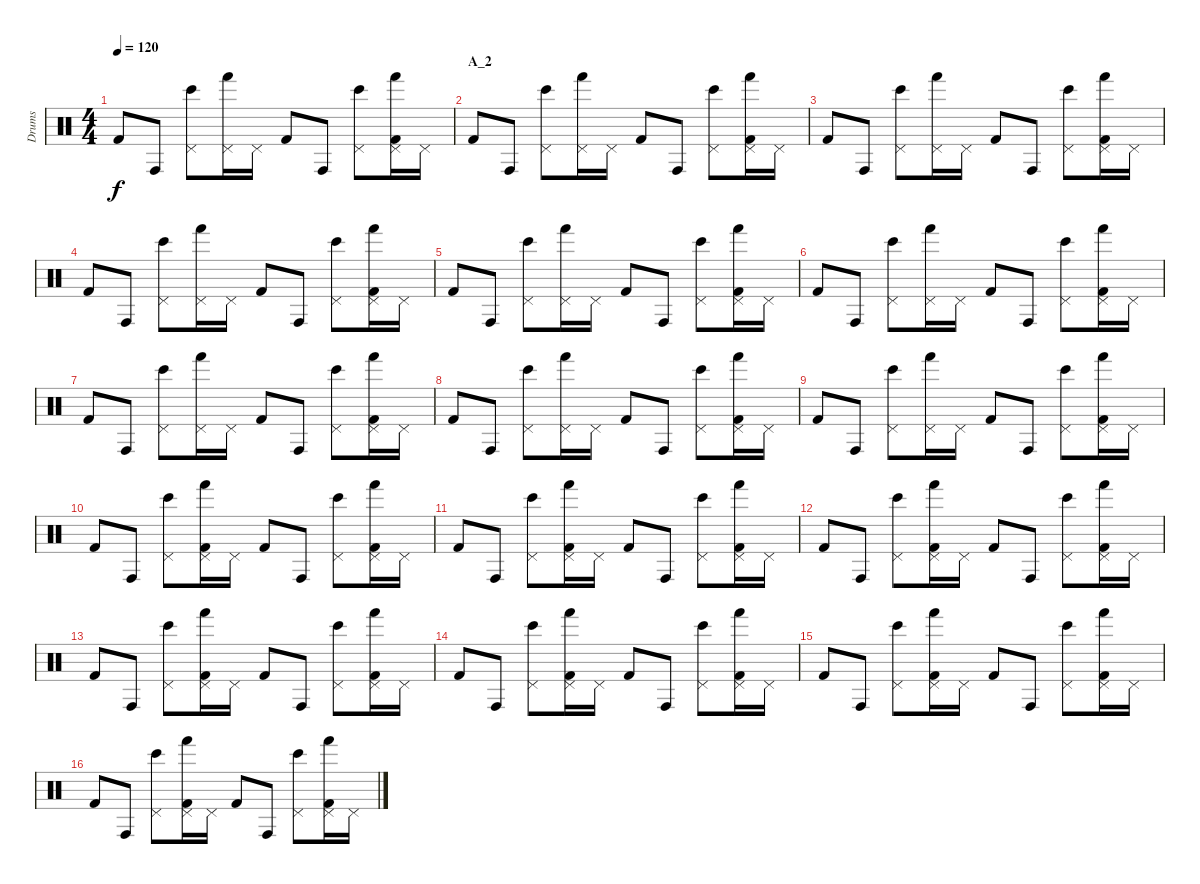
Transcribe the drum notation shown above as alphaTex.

\track ("Drums" "Drums") {instrument percussion}
\staff {score}
\articulation defaults
\ts (4 4)
\tempo 120
\clef neutral
\ks c "Kick (hit) 2".8{dy f} "Conga high (hit)".8
("Pedal Hi-Hat (hit)" "Bongo High (hit)").8 ("Pedal Hi-Hat (hit)" "Hand (hit)").16 "Pedal Hi-Hat (hit)".16 "Kick (hit) 2".8 "Conga high (hit)".8 ("Pedal Hi-Hat (hit)" "Bongo High (hit)").8 ("Pedal Hi-Hat (hit)" "Hand (hit)" "Kick (hit) 2").16 "Pedal Hi-Hat (hit)".16 |
\section ("" "A_2")
"Kick (hit) 2".8 "Conga high (hit)".8 ("Pedal Hi-Hat (hit)" "Bongo High (hit)").8 ("Pedal Hi-Hat (hit)" "Hand (hit)").16 "Pedal Hi-Hat (hit)".16 "Kick (hit) 2".8 "Conga high (hit)".8 ("Pedal Hi-Hat (hit)" "Bongo High (hit)").8 ("Pedal Hi-Hat (hit)" "Hand (hit)" "Kick (hit) 2").16 "Pedal Hi-Hat (hit)".16 |
"Kick (hit) 2".8 "Conga high (hit)".8 ("Pedal Hi-Hat (hit)" "Bongo High (hit)").8 ("Pedal Hi-Hat (hit)" "Hand (hit)").16 "Pedal Hi-Hat (hit)".16 "Kick (hit) 2".8 "Conga high (hit)".8 ("Pedal Hi-Hat (hit)" "Bongo High (hit)").8 ("Pedal Hi-Hat (hit)" "Hand (hit)" "Kick (hit) 2").16 "Pedal Hi-Hat (hit)".16 |
"Kick (hit) 2".8 "Conga high (hit)".8 ("Pedal Hi-Hat (hit)" "Bongo High (hit)").8 ("Pedal Hi-Hat (hit)" "Hand (hit)").16 "Pedal Hi-Hat (hit)".16 "Kick (hit) 2".8 "Conga high (hit)".8 ("Pedal Hi-Hat (hit)" "Bongo High (hit)").8 ("Pedal Hi-Hat (hit)" "Hand (hit)" "Kick (hit) 2").16 "Pedal Hi-Hat (hit)".16 |
"Kick (hit) 2".8 "Conga high (hit)".8 ("Pedal Hi-Hat (hit)" "Bongo High (hit)").8 ("Pedal Hi-Hat (hit)" "Hand (hit)").16 "Pedal Hi-Hat (hit)".16 "Kick (hit) 2".8 "Conga high (hit)".8 ("Pedal Hi-Hat (hit)" "Bongo High (hit)").8 ("Pedal Hi-Hat (hit)" "Hand (hit)" "Kick (hit) 2").16 "Pedal Hi-Hat (hit)".16 |
"Kick (hit) 2".8 "Conga high (hit)".8 ("Pedal Hi-Hat (hit)" "Bongo High (hit)").8 ("Pedal Hi-Hat (hit)" "Hand (hit)").16 "Pedal Hi-Hat (hit)".16 "Kick (hit) 2".8 "Conga high (hit)".8 ("Pedal Hi-Hat (hit)" "Bongo High (hit)").8 ("Pedal Hi-Hat (hit)" "Hand (hit)" "Kick (hit) 2").16 "Pedal Hi-Hat (hit)".16 |
"Kick (hit) 2".8 "Conga high (hit)".8 ("Pedal Hi-Hat (hit)" "Bongo High (hit)").8 ("Pedal Hi-Hat (hit)" "Hand (hit)").16 "Pedal Hi-Hat (hit)".16 "Kick (hit) 2".8 "Conga high (hit)".8 ("Pedal Hi-Hat (hit)" "Bongo High (hit)").8 ("Pedal Hi-Hat (hit)" "Hand (hit)" "Kick (hit) 2").16 "Pedal Hi-Hat (hit)".16 |
"Kick (hit) 2".8 "Conga high (hit)".8 ("Pedal Hi-Hat (hit)" "Bongo High (hit)").8 ("Pedal Hi-Hat (hit)" "Hand (hit)").16 "Pedal Hi-Hat (hit)".16 "Kick (hit) 2".8 "Conga high (hit)".8 ("Pedal Hi-Hat (hit)" "Bongo High (hit)").8 ("Pedal Hi-Hat (hit)" "Hand (hit)" "Kick (hit) 2").16 "Pedal Hi-Hat (hit)".16 |
"Kick (hit) 2".8 "Conga high (hit)".8 ("Pedal Hi-Hat (hit)" "Bongo High (hit)").8 ("Pedal Hi-Hat (hit)" "Hand (hit)").16 "Pedal Hi-Hat (hit)".16 "Kick (hit) 2".8 "Conga high (hit)".8 ("Pedal Hi-Hat (hit)" "Bongo High (hit)").8 ("Pedal Hi-Hat (hit)" "Hand (hit)" "Kick (hit) 2").16 "Pedal Hi-Hat (hit)".16 |
"Kick (hit) 2".8 "Conga high (hit)".8 ("Pedal Hi-Hat (hit)" "Bongo High (hit)").8 ("Pedal Hi-Hat (hit)" "Hand (hit)" "Kick (hit) 2").16 "Pedal Hi-Hat (hit)".16 "Kick (hit) 2".8 "Conga high (hit)".8 ("Pedal Hi-Hat (hit)" "Bongo High (hit)").8 ("Pedal Hi-Hat (hit)" "Hand (hit)" "Kick (hit) 2").16 "Pedal Hi-Hat (hit)".16 |
"Kick (hit) 2".8 "Conga high (hit)".8 ("Pedal Hi-Hat (hit)" "Bongo High (hit)").8 ("Pedal Hi-Hat (hit)" "Hand (hit)" "Kick (hit) 2").16 "Pedal Hi-Hat (hit)".16 "Kick (hit) 2".8 "Conga high (hit)".8 ("Pedal Hi-Hat (hit)" "Bongo High (hit)").8 ("Pedal Hi-Hat (hit)" "Hand (hit)" "Kick (hit) 2").16 "Pedal Hi-Hat (hit)".16 |
"Kick (hit) 2".8 "Conga high (hit)".8 ("Pedal Hi-Hat (hit)" "Bongo High (hit)").8 ("Pedal Hi-Hat (hit)" "Hand (hit)" "Kick (hit) 2").16 "Pedal Hi-Hat (hit)".16 "Kick (hit) 2".8 "Conga high (hit)".8 ("Pedal Hi-Hat (hit)" "Bongo High (hit)").8 ("Pedal Hi-Hat (hit)" "Hand (hit)" "Kick (hit) 2").16 "Pedal Hi-Hat (hit)".16 |
"Kick (hit) 2".8 "Conga high (hit)".8 ("Pedal Hi-Hat (hit)" "Bongo High (hit)").8 ("Pedal Hi-Hat (hit)" "Hand (hit)" "Kick (hit) 2").16 "Pedal Hi-Hat (hit)".16 "Kick (hit) 2".8 "Conga high (hit)".8 ("Pedal Hi-Hat (hit)" "Bongo High (hit)").8 ("Pedal Hi-Hat (hit)" "Hand (hit)" "Kick (hit) 2").16 "Pedal Hi-Hat (hit)".16 |
"Kick (hit) 2".8 "Conga high (hit)".8 ("Pedal Hi-Hat (hit)" "Bongo High (hit)").8 ("Pedal Hi-Hat (hit)" "Hand (hit)" "Kick (hit) 2").16 "Pedal Hi-Hat (hit)".16 "Kick (hit) 2".8 "Conga high (hit)".8 ("Pedal Hi-Hat (hit)" "Bongo High (hit)").8 ("Pedal Hi-Hat (hit)" "Hand (hit)" "Kick (hit) 2").16 "Pedal Hi-Hat (hit)".16 |
"Kick (hit) 2".8 "Conga high (hit)".8 ("Pedal Hi-Hat (hit)" "Bongo High (hit)").8 ("Pedal Hi-Hat (hit)" "Hand (hit)" "Kick (hit) 2").16 "Pedal Hi-Hat (hit)".16 "Kick (hit) 2".8 "Conga high (hit)".8 ("Pedal Hi-Hat (hit)" "Bongo High (hit)").8 ("Pedal Hi-Hat (hit)" "Hand (hit)" "Kick (hit) 2").16 "Pedal Hi-Hat (hit)".16 |
"Kick (hit) 2".8 "Conga high (hit)".8 ("Pedal Hi-Hat (hit)" "Bongo High (hit)").8 ("Pedal Hi-Hat (hit)" "Hand (hit)" "Kick (hit) 2").16 "Pedal Hi-Hat (hit)".16 "Kick (hit) 2".8 "Conga high (hit)".8 ("Pedal Hi-Hat (hit)" "Bongo High (hit)").8 ("Pedal Hi-Hat (hit)" "Hand (hit)" "Kick (hit) 2").16 "Pedal Hi-Hat (hit)".16
